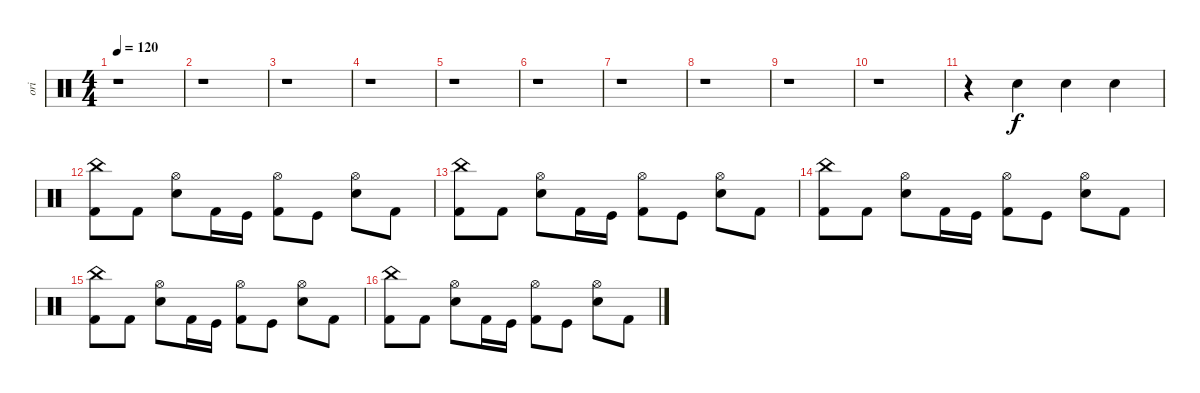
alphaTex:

\track ("ori" "ori") {instrument percussion}
\staff {score}
\articulation defaults
\ts (4 4)
\tempo 120
\clef neutral
\ks c
r.1{dy f} |
r.1 |
r.1 |
r.1 |
r.1 |
r.1 |
r.1 |
r.1 |
r.1 |
r.1 |
r.4 "Metronome (bell)".4 "Metronome (bell)".4 "Metronome (bell)".4 |
("Kick (hit) 2" "China (hit)").8 "Kick (hit) 2".8 ("Electric Snare (hit)" "Hi-Hat (open)").8 "Kick (hit) 2".16 "Kick (hit)".16 ("Kick (hit) 2" "Hi-Hat (open)").8 "Kick (hit)".8 ("Electric Snare (hit)" "Hi-Hat (open)").8 "Kick (hit) 2".8 |
("Kick (hit) 2" "China (hit)").8 "Kick (hit) 2".8 ("Electric Snare (hit)" "Hi-Hat (open)").8 "Kick (hit) 2".16 "Kick (hit)".16 ("Kick (hit) 2" "Hi-Hat (open)").8 "Kick (hit)".8 ("Electric Snare (hit)" "Hi-Hat (open)").8 "Kick (hit) 2".8 |
("Kick (hit) 2" "China (hit)").8 "Kick (hit) 2".8 ("Electric Snare (hit)" "Hi-Hat (open)").8 "Kick (hit) 2".16 "Kick (hit)".16 ("Kick (hit) 2" "Hi-Hat (open)").8 "Kick (hit)".8 ("Electric Snare (hit)" "Hi-Hat (open)").8 "Kick (hit) 2".8 |
("Kick (hit) 2" "China (hit)").8 "Kick (hit) 2".8 ("Electric Snare (hit)" "Hi-Hat (open)").8 "Kick (hit) 2".16 "Kick (hit)".16 ("Kick (hit) 2" "Hi-Hat (open)").8 "Kick (hit)".8 ("Electric Snare (hit)" "Hi-Hat (open)").8 "Kick (hit) 2".8 |
("Kick (hit) 2" "China (hit)").8 "Kick (hit) 2".8 ("Electric Snare (hit)" "Hi-Hat (open)").8 "Kick (hit) 2".16 "Kick (hit)".16 ("Kick (hit) 2" "Hi-Hat (open)").8 "Kick (hit)".8 ("Electric Snare (hit)" "Hi-Hat (open)").8 "Kick (hit) 2".8
